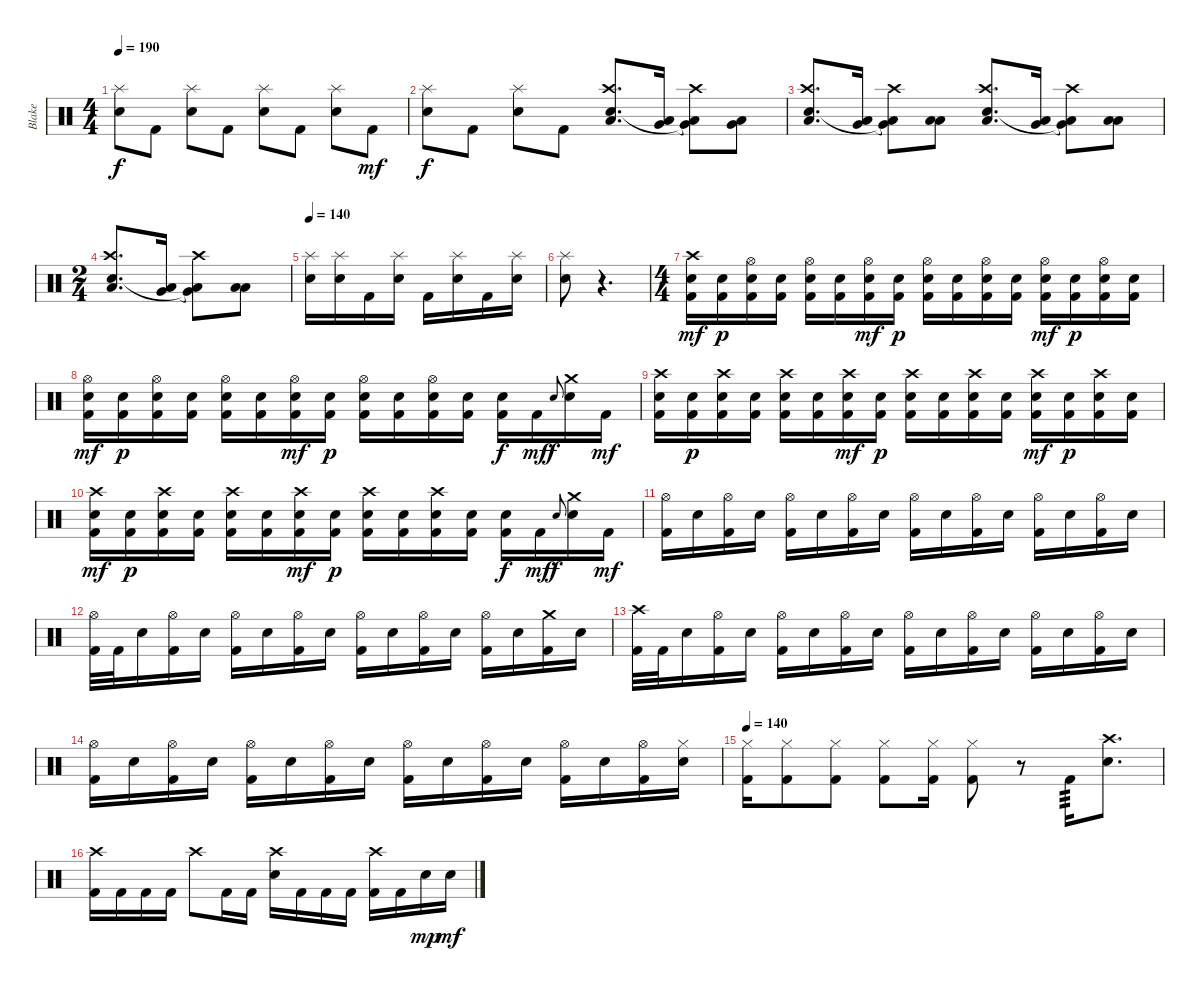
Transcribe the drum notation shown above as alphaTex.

\track ("Blake" "Blake") {instrument percussion}
\staff {score}
\articulation defaults
\ts (4 4)
\tempo 190
\clef neutral
\ks c
("Splash (hit)" "Snare (hit) 2").8{dy f} "Kick (hit) 2".8 ("Splash (hit)" "Snare (hit) 2").8 "Kick (hit) 2".8 ("Splash (hit)" "Snare (hit) 2").8 "Kick (hit) 2".8 ("Splash (hit)" "Snare (hit) 2").8 "Kick (hit) 2".8{dy mf} |
("Splash (hit)" "Snare (hit) 2").8{dy f} "Kick (hit) 2".8 ("Splash (hit)" "Snare (hit) 2").8 "Kick (hit) 2".8 ("Crash high (hit)" "Low Tom (hit)" "Snare (hit) 2").8{d} ("Low Tom (hit)" "Very Low Tom (hit)").16 ("Crash high (hit)" "Low Tom (hit)"{t} "Very Low Tom (hit)"{t}).8 ("Very Low Tom (hit)" "Low Tom (hit)").8 |
("Crash high (hit)" "Low Tom (hit)" "Snare (hit) 2").8{d} ("Low Tom (hit)" "Very Low Tom (hit)").16 ("Crash high (hit)" "Low Tom (hit)"{t} "Very Low Tom (hit)"{t}).8 ("Low Floor Tom (hit)" "Low Tom (hit)").8 ("Crash high (hit)" "Low Tom (hit)" "Snare (hit) 2").8{d} ("Low Tom (hit)" "Very Low Tom (hit)").16 ("Crash high (hit)" "Low Tom (hit)"{t} "Very Low Tom (hit)"{t}).8 ("Low Floor Tom (hit)" "Low Tom (hit)").8 |
\ts (2 4)
("Crash high (hit)" "Low Tom (hit)" "Snare (hit) 2").8{d} ("Low Tom (hit)" "Very Low Tom (hit)").16 ("Crash high (hit)" "Low Tom (hit)"{t} "Very Low Tom (hit)"{t}).8 ("Low Floor Tom (hit)" "Low Tom (hit)").8 |
\tempo 140
("Splash (hit)" "Snare (hit) 2").16 ("Splash (hit)" "Snare (hit) 2").16 "Kick (hit) 2".16 ("Splash (hit)" "Snare (hit) 2").16 "Kick (hit) 2".16 ("Splash (hit)" "Snare (hit) 2").16 "Kick (hit) 2".16 ("Splash (hit)" "Snare (hit) 2").16 |
("Splash (hit)" "Snare (hit) 2").8 r.4{d} |
\ts (4 4)
("Crash high (hit)" "Snare (hit) 2" "Kick (hit) 2").16{dy mf} ("Snare (hit) 2" "Kick (hit) 2").16{dy p} ("Hi-Hat (open)" "Snare (hit) 2" "Kick (hit) 2").16 ("Snare (hit) 2" "Kick (hit) 2").16 ("Hi-Hat (open)" "Snare (hit) 2" "Kick (hit) 2").16 ("Snare (hit) 2" "Kick (hit) 2").16 ("Hi-Hat (open)" "Snare (hit) 2" "Kick (hit) 2").16{dy mf} ("Snare (hit) 2" "Kick (hit) 2").16{dy p} ("Hi-Hat (open)" "Snare (hit) 2" "Kick (hit) 2").16 ("Snare (hit) 2" "Kick (hit) 2").16 ("Hi-Hat (open)" "Snare (hit) 2" "Kick (hit) 2").16 ("Snare (hit) 2" "Kick (hit) 2").16 ("Hi-Hat (open)" "Snare (hit) 2" "Kick (hit) 2").16{dy mf} ("Snare (hit) 2" "Kick (hit) 2").16{dy p} ("Hi-Hat (open)" "Snare (hit) 2" "Kick (hit) 2").16 ("Snare (hit) 2" "Kick (hit) 2").16 |
("Hi-Hat (open)" "Snare (hit) 2" "Kick (hit) 2").16{dy mf} ("Snare (hit) 2" "Kick (hit) 2").16{dy p} ("Hi-Hat (open)" "Snare (hit) 2" "Kick (hit) 2").16 ("Snare (hit) 2" "Kick (hit) 2").16 ("Hi-Hat (open)" "Snare (hit) 2" "Kick (hit) 2").16 ("Snare (hit) 2" "Kick (hit) 2").16 ("Hi-Hat (open)" "Snare (hit) 2" "Kick (hit) 2").16{dy mf} ("Snare (hit) 2" "Kick (hit) 2").16{dy p} ("Hi-Hat (open)" "Snare (hit) 2" "Kick (hit) 2").16 ("Snare (hit) 2" "Kick (hit) 2").16 ("Hi-Hat (open)" "Snare (hit) 2" "Kick (hit) 2").16 ("Snare (hit) 2" "Kick (hit) 2").16 ("Snare (hit) 2" "Kick (hit) 2").16{dy f} "Kick (hit) 2".16{dy mf} "Snare (hit) 2".8{gr onbeat dy f} ("Crash medium (hit)" "Snare (hit) 2").16 "Kick (hit) 2".16{dy mf} |
("Crash high (hit)" "Snare (hit) 2" "Kick (hit) 2").16 ("Snare (hit) 2" "Kick (hit) 2").16{dy p} ("Crash high (hit)" "Snare (hit) 2" "Kick (hit) 2").16 ("Snare (hit) 2" "Kick (hit) 2").16 ("Crash high (hit)" "Snare (hit) 2" "Kick (hit) 2").16 ("Snare (hit) 2" "Kick (hit) 2").16 ("Crash high (hit)" "Snare (hit) 2" "Kick (hit) 2").16{dy mf} ("Snare (hit) 2" "Kick (hit) 2").16{dy p} ("Crash high (hit)" "Snare (hit) 2" "Kick (hit) 2").16 ("Snare (hit) 2" "Kick (hit) 2").16 ("Crash high (hit)" "Snare (hit) 2" "Kick (hit) 2").16 ("Snare (hit) 2" "Kick (hit) 2").16 ("Crash high (hit)" "Snare (hit) 2" "Kick (hit) 2").16{dy mf} ("Snare (hit) 2" "Kick (hit) 2").16{dy p} ("Crash high (hit)" "Snare (hit) 2" "Kick (hit) 2").16 ("Snare (hit) 2" "Kick (hit) 2").16 |
("Crash high (hit)" "Snare (hit) 2" "Kick (hit) 2").16{dy mf} ("Snare (hit) 2" "Kick (hit) 2").16{dy p} ("Crash high (hit)" "Snare (hit) 2" "Kick (hit) 2").16 ("Snare (hit) 2" "Kick (hit) 2").16 ("Crash high (hit)" "Snare (hit) 2" "Kick (hit) 2").16 ("Snare (hit) 2" "Kick (hit) 2").16 ("Crash high (hit)" "Snare (hit) 2" "Kick (hit) 2").16{dy mf} ("Snare (hit) 2" "Kick (hit) 2").16{dy p} ("Crash high (hit)" "Snare (hit) 2" "Kick (hit) 2").16 ("Snare (hit) 2" "Kick (hit) 2").16 ("Crash high (hit)" "Snare (hit) 2" "Kick (hit) 2").16 ("Snare (hit) 2" "Kick (hit) 2").16 ("Snare (hit) 2" "Kick (hit) 2").16{dy f} "Kick (hit) 2".16{dy mf} "Snare (hit) 2".8{gr onbeat dy f} ("Crash medium (hit)" "Snare (hit) 2").16 "Kick (hit) 2".16{dy mf} |
("Hi-Hat (open)" "Kick (hit) 2").16 "Snare (hit) 2".16 ("Hi-Hat (open)" "Kick (hit) 2").16 "Snare (hit) 2".16 ("Hi-Hat (open)" "Kick (hit) 2").16 "Snare (hit) 2".16 ("Hi-Hat (open)" "Kick (hit) 2").16 "Snare (hit) 2".16 ("Hi-Hat (open)" "Kick (hit) 2").16 "Snare (hit) 2".16 ("Hi-Hat (open)" "Kick (hit) 2").16 "Snare (hit) 2".16 ("Hi-Hat (open)" "Kick (hit) 2").16 "Snare (hit) 2".16 ("Hi-Hat (open)" "Kick (hit) 2").16 "Snare (hit) 2".16 |
("Hi-Hat (open)" "Kick (hit) 2").32 "Kick (hit) 2".32 "Snare (hit) 2".16 ("Hi-Hat (open)" "Kick (hit) 2").16 "Snare (hit) 2".16 ("Hi-Hat (open)" "Kick (hit) 2").16 "Snare (hit) 2".16 ("Hi-Hat (open)" "Kick (hit) 2").16 "Snare (hit) 2".16 ("Hi-Hat (open)" "Kick (hit) 2").16 "Snare (hit) 2".16 ("Hi-Hat (open)" "Kick (hit) 2").16 "Snare (hit) 2".16 ("Hi-Hat (open)" "Kick (hit) 2").16 "Snare (hit) 2".16 ("Crash medium (hit)" "Kick (hit) 2").16 "Snare (hit) 2".16 |
("Crash high (hit)" "Kick (hit) 2").32 "Kick (hit) 2".32 "Snare (hit) 2".16 ("Hi-Hat (open)" "Kick (hit) 2").16 "Snare (hit) 2".16 ("Hi-Hat (open)" "Kick (hit) 2").16 "Snare (hit) 2".16 ("Hi-Hat (open)" "Kick (hit) 2").16 "Snare (hit) 2".16 ("Hi-Hat (open)" "Kick (hit) 2").16 "Snare (hit) 2".16 ("Hi-Hat (open)" "Kick (hit) 2").16 "Snare (hit) 2".16 ("Hi-Hat (open)" "Kick (hit) 2").16 "Snare (hit) 2".16 ("Hi-Hat (open)" "Kick (hit) 2").16 "Snare (hit) 2".16 |
("Hi-Hat (open)" "Kick (hit) 2").16 "Snare (hit) 2".16 ("Hi-Hat (open)" "Kick (hit) 2").16 "Snare (hit) 2".16 ("Hi-Hat (open)" "Kick (hit) 2").16 "Snare (hit) 2".16 ("Hi-Hat (open)" "Kick (hit) 2").16 "Snare (hit) 2".16 ("Hi-Hat (open)" "Kick (hit) 2").16 "Snare (hit) 2".16 ("Hi-Hat (open)" "Kick (hit) 2").16 "Snare (hit) 2".16 ("Hi-Hat (open)" "Kick (hit) 2").16 "Snare (hit) 2".16 ("Hi-Hat (open)" "Kick (hit) 2").16 ("Hi-Hat (closed)" "Snare (hit) 2").16 |
\tempo 140
("Hi-Hat (closed)" "Kick (hit) 2").16 ("Hi-Hat (closed)" "Kick (hit) 2").8 ("Hi-Hat (closed)" "Kick (hit) 2").8 ("Hi-Hat (closed)" "Kick (hit) 2").8 ("Hi-Hat (closed)" "Kick (hit) 2").16 ("Hi-Hat (closed)" "Kick (hit) 2").8 r.8 "Kick (hit) 2".16{tp 3} ("Crash high (hit)" "Snare (hit) 2").8{d} |
("Crash high (hit)" "Kick (hit) 2").16 "Kick (hit) 2".16 "Kick (hit) 2".16 "Kick (hit) 2".16 "Crash high (hit)".8 "Kick (hit) 2".16 "Kick (hit) 2".16 ("Crash high (hit)" "Snare (hit) 2").16 "Kick (hit) 2".16 "Kick (hit) 2".16 "Kick (hit) 2".16 ("Crash high (hit)" "Kick (hit) 2").16 "Kick (hit) 2".16 "Snare (hit) 2".16{dy mp} "Snare (hit) 2".16{dy mf}
